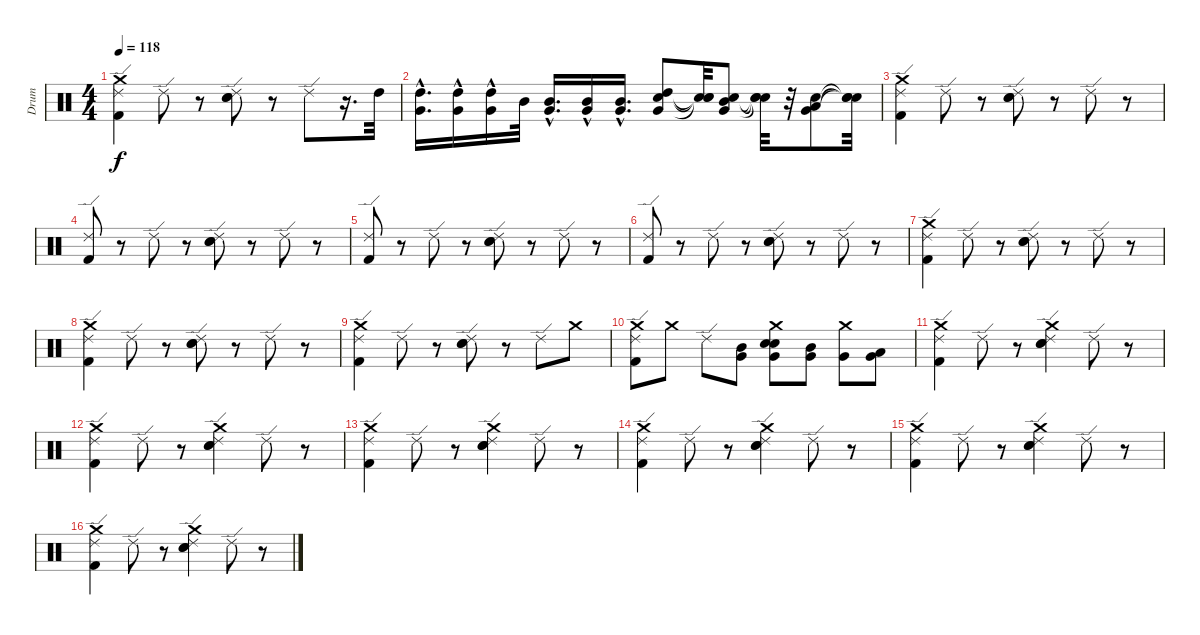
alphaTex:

\track (" Drum" " Drum") {instrument percussion}
\staff {score}
\articulation defaults
\ts (4 4)
\tempo 118
\clef neutral
\ks c
("Crash medium (hit)" "Kick (hit) 2" "Ride (edge) 2").4{dy f} "Ride (edge) 2".8 r.8 ("Electric Snare (hit)" "Snare (hit) 2" "Ride (edge) 2").8 r.8 "Ride (edge) 2".8 r.16{d} "High Tom (hit)".32 |
("Very Low Tom (hit)"{hac} "High Tom (hit)"{hac}).16{d} ("Very Low Tom (hit)"{hac} "High Tom (hit)"{hac}).16 ("Very Low Tom (hit)"{hac} "High Tom (hit)"{hac}).16 "Mid Tom (hit)".32 ("Very Low Tom (hit)"{hac} "Mid Tom (hit)"{hac}).16{d} ("Very Low Tom (hit)"{hac} "Mid Tom (hit)"{hac}).16 ("Very Low Tom (hit)"{hac} "Mid Tom (hit)"{hac}).16{d} ("Very Low Tom (hit)" "High Tom (hit)" "Electric Snare (hit)").8 ("Snare (hit)"{t} "Snare (hit)"{t} "Snare (hit)"{t}).32 ("Very Low Tom (hit)" "Mid Tom (hit)" "Electric Snare (hit)").8 ("Snare (hit)"{t} "Snare (hit)"{t} "Snare (hit)"{t}).32 r.32 ("Very Low Tom (hit)" "Low Tom (hit)" "Electric Snare (hit)").8 ("Snare (hit)"{t} "Snare (hit)"{t} "Snare (hit)"{t}).32 |
("Crash medium (hit)" "Kick (hit) 2" "Ride (edge) 2").4 "Ride (edge) 2".8 r.8 ("Electric Snare (hit)" "Snare (hit) 2" "Ride (edge) 2").8 r.8 "Ride (edge) 2".8 r.8 |
("Kick (hit) 2" "Ride (edge) 2").8 r.8 "Ride (edge) 2".8 r.8 ("Electric Snare (hit)" "Snare (hit) 2" "Ride (edge) 2").8 r.8 "Ride (edge) 2".8 r.8 |
("Kick (hit) 2" "Ride (edge) 2").8 r.8 "Ride (edge) 2".8 r.8 ("Electric Snare (hit)" "Snare (hit) 2" "Ride (edge) 2").8 r.8 "Ride (edge) 2".8 r.8 |
("Kick (hit) 2" "Ride (edge) 2").8 r.8 "Ride (edge) 2".8 r.8 ("Electric Snare (hit)" "Snare (hit) 2" "Ride (edge) 2").8 r.8 "Ride (edge) 2".8 r.8 |
("Crash medium (hit)" "Kick (hit) 2" "Ride (edge) 2").4 "Ride (edge) 2".8 r.8 ("Electric Snare (hit)" "Snare (hit) 2" "Ride (edge) 2").8 r.8 "Ride (edge) 2".8 r.8 |
("Crash medium (hit)" "Kick (hit) 2" "Ride (edge) 2").4 "Ride (edge) 2".8 r.8 ("Electric Snare (hit)" "Snare (hit) 2" "Ride (edge) 2").8 r.8 "Ride (edge) 2".8 r.8 |
("Crash medium (hit)" "Kick (hit) 2" "Ride (edge) 2").4 "Ride (edge) 2".8 r.8 ("Electric Snare (hit)" "Snare (hit) 2" "Ride (edge) 2").8 r.8 "Ride (edge) 2".8 "Crash medium (hit)".8 |
("Crash medium (hit)" "Kick (hit) 2" "Ride (edge) 2").8 "Crash medium (hit)".8 "Ride (edge) 2".8 ("Mid Tom (hit)" "Very Low Tom (hit)").8 ("Crash medium (hit)" "Very Low Tom (hit)" "Electric Snare (hit)" "Snare (hit) 2").8 ("Mid Tom (hit)" "Very Low Tom (hit)").8 ("Crash medium (hit)" "Very Low Tom (hit)").8 ("Low Tom (hit)" "Very Low Tom (hit)").8 |
("Crash medium (hit)" "Kick (hit) 2" "Ride (edge) 2").4 "Ride (edge) 2".8 r.8 ("Crash medium (hit)" "Electric Snare (hit)" "Snare (hit) 2" "Ride (edge) 2").4 "Ride (edge) 2".8 r.8 |
("Crash medium (hit)" "Kick (hit) 2" "Ride (edge) 2").4 "Ride (edge) 2".8 r.8 ("Crash medium (hit)" "Electric Snare (hit)" "Snare (hit) 2" "Ride (edge) 2").4 "Ride (edge) 2".8 r.8 |
("Crash medium (hit)" "Kick (hit) 2" "Ride (edge) 2").4 "Ride (edge) 2".8 r.8 ("Crash medium (hit)" "Electric Snare (hit)" "Snare (hit) 2" "Ride (edge) 2").4 "Ride (edge) 2".8 r.8 |
("Crash medium (hit)" "Kick (hit) 2" "Ride (edge) 2").4 "Ride (edge) 2".8 r.8 ("Crash medium (hit)" "Electric Snare (hit)" "Snare (hit) 2" "Ride (edge) 2").4 "Ride (edge) 2".8 r.8 |
("Crash medium (hit)" "Kick (hit) 2" "Ride (edge) 2").4{volume 12} "Ride (edge) 2".8 r.8 ("Crash medium (hit)" "Electric Snare (hit)" "Snare (hit) 2" "Ride (edge) 2").4{volume 12} "Ride (edge) 2".8 r.8 |
("Crash medium (hit)" "Kick (hit) 2" "Ride (edge) 2").4{volume 12} "Ride (edge) 2".8{volume 11} r.8 ("Crash medium (hit)" "Electric Snare (hit)" "Snare (hit) 2" "Ride (edge) 2").4 "Ride (edge) 2".8{volume 11} r.8
